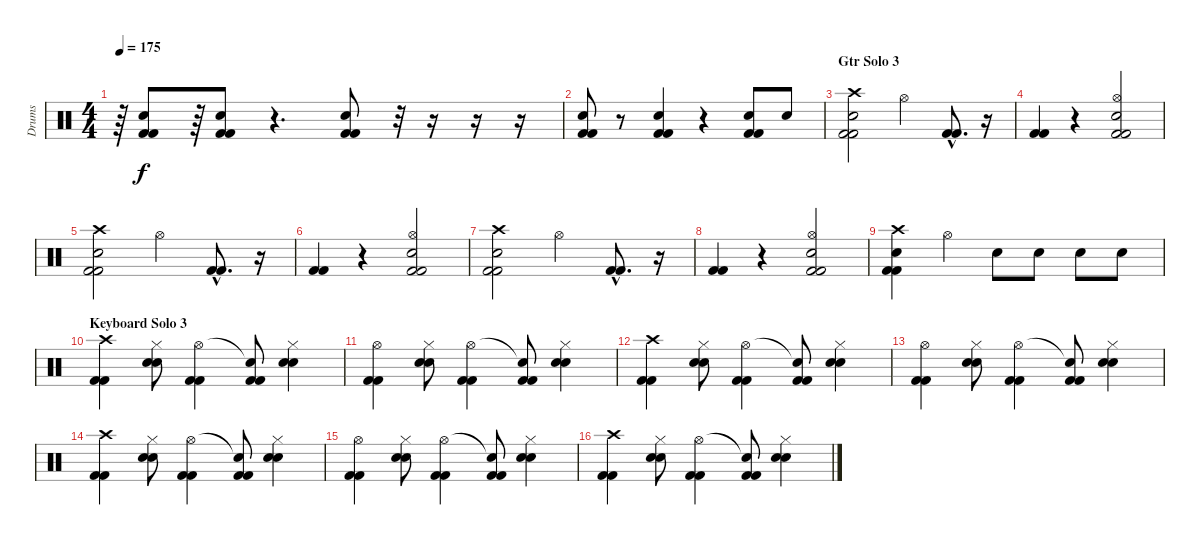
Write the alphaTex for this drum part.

\track ("Drums" "Drums") {instrument percussion}
\staff {score}
\articulation defaults
\ts (4 4)
\tempo 175
\clef neutral
\ks c
r.64{dy f} ("Snare (hit) 2" "Kick (hit) 2" "Kick (hit) 2").8 r.64 ("Snare (hit) 2" "Kick (hit) 2" "Kick (hit) 2").8 r.4{d} ("Snare (hit) 2" "Kick (hit) 2" "Kick (hit) 2").8 r.32 r.16 r.16 r.16 |
("Snare (hit) 2" "Kick (hit) 2" "Kick (hit) 2").8 r.8 ("Snare (hit) 2" "Kick (hit) 2" "Kick (hit) 2").4 r.4 ("Snare (hit) 2" "Kick (hit) 2" "Kick (hit) 2").8 "Snare (hit) 2".8 |
\section ("" "Gtr Solo 3")
("Crash high (hit)" "Snare (hit) 2" "Kick (hit) 2" "Kick (hit) 2").2 "Hi-Hat (open)".4 ("Kick (hit) 2"{hac} "Kick (hit) 2"{hac}).8{d} r.16 |
("Kick (hit) 2" "Kick (hit) 2").4 r.4 ("Hi-Hat (open)" "Electric Snare (hit)" "Kick (hit) 2" "Kick (hit) 2").2 |
("Crash high (hit)" "Snare (hit) 2" "Kick (hit) 2" "Kick (hit) 2").2 "Hi-Hat (open)".4 ("Kick (hit) 2"{hac} "Kick (hit) 2"{hac}).8{d} r.16 |
("Kick (hit) 2" "Kick (hit) 2").4 r.4 ("Hi-Hat (open)" "Electric Snare (hit)" "Kick (hit) 2" "Kick (hit) 2").2 |
("Crash high (hit)" "Snare (hit) 2" "Kick (hit) 2" "Kick (hit) 2").2 "Hi-Hat (open)".4 ("Kick (hit) 2"{hac} "Kick (hit) 2"{hac}).8{d} r.16 |
("Kick (hit) 2" "Kick (hit) 2").4 r.4 ("Hi-Hat (open)" "Electric Snare (hit)" "Kick (hit) 2" "Kick (hit) 2").2 |
("Crash high (hit)" "Snare (hit) 2" "Kick (hit) 2" "Kick (hit) 2").4 "Hi-Hat (open)".4 "Snare (hit) 2".8 "Snare (hit) 2".8 "Snare (hit) 2".8 "Snare (hit) 2".8 |
\section ("" "Keyboard Solo 3")
("Crash high (hit)" "Kick (hit) 2" "Kick (hit) 2").4 ("Hi-Hat (closed)" "Snare (hit) 2" "Snare (hit) 2").8 ("Hi-Hat (open)" "Kick (hit) 2" "Kick (hit) 2").4 ("Snare (hit)"{t} "Kick (hit) 2" "Kick (hit) 2").8 ("Hi-Hat (closed)" "Snare (hit) 2" "Snare (hit) 2").4 |
("Hi-Hat (open)" "Kick (hit) 2" "Kick (hit) 2").4 ("Hi-Hat (closed)" "Snare (hit) 2" "Snare (hit) 2").8 ("Hi-Hat (open)" "Kick (hit) 2" "Kick (hit) 2").4 ("Snare (hit)"{t} "Kick (hit) 2" "Kick (hit) 2").8 ("Hi-Hat (closed)" "Snare (hit) 2" "Snare (hit) 2").4 |
("Crash high (hit)" "Kick (hit) 2" "Kick (hit) 2").4 ("Hi-Hat (closed)" "Snare (hit) 2" "Snare (hit) 2").8 ("Hi-Hat (open)" "Kick (hit) 2" "Kick (hit) 2").4 ("Snare (hit)"{t} "Kick (hit) 2" "Kick (hit) 2").8 ("Hi-Hat (closed)" "Snare (hit) 2" "Snare (hit) 2").4 |
("Hi-Hat (open)" "Kick (hit) 2" "Kick (hit) 2").4 ("Hi-Hat (closed)" "Snare (hit) 2" "Snare (hit) 2").8 ("Hi-Hat (open)" "Kick (hit) 2" "Kick (hit) 2").4 ("Snare (hit)"{t} "Kick (hit) 2" "Kick (hit) 2").8 ("Hi-Hat (closed)" "Snare (hit) 2" "Snare (hit) 2").4 |
("Crash high (hit)" "Kick (hit) 2" "Kick (hit) 2").4 ("Hi-Hat (closed)" "Snare (hit) 2" "Snare (hit) 2").8 ("Hi-Hat (open)" "Kick (hit) 2" "Kick (hit) 2").4 ("Snare (hit)"{t} "Kick (hit) 2" "Kick (hit) 2").8 ("Hi-Hat (closed)" "Snare (hit) 2" "Snare (hit) 2").4 |
("Hi-Hat (open)" "Kick (hit) 2" "Kick (hit) 2").4 ("Hi-Hat (closed)" "Snare (hit) 2" "Snare (hit) 2").8 ("Hi-Hat (open)" "Kick (hit) 2" "Kick (hit) 2").4 ("Snare (hit)"{t} "Kick (hit) 2" "Kick (hit) 2").8 ("Hi-Hat (closed)" "Snare (hit) 2" "Snare (hit) 2").4 |
("Crash high (hit)" "Kick (hit) 2" "Kick (hit) 2").4 ("Hi-Hat (closed)" "Snare (hit) 2" "Snare (hit) 2").8 ("Hi-Hat (open)" "Kick (hit) 2" "Kick (hit) 2").4 ("Snare (hit)"{t} "Kick (hit) 2" "Kick (hit) 2").8 ("Hi-Hat (closed)" "Snare (hit) 2" "Snare (hit) 2").4
